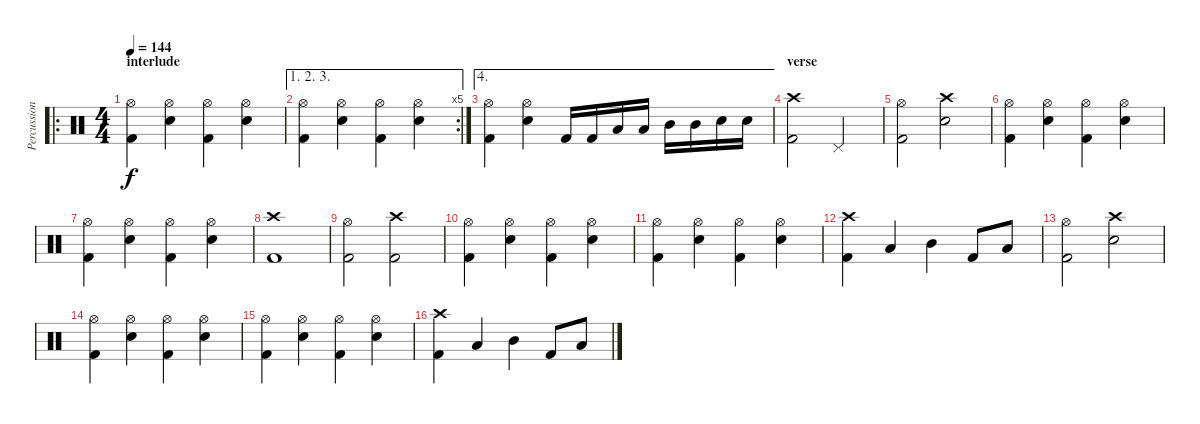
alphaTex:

\track ("Percussion" "Percussion") {instrument percussion}
\staff {score}
\articulation defaults
\ro
\ts (4 4)
\section ("" "interlude")
\tempo 144
\clef neutral
\ks c
("Hi-Hat (open)" "Kick (hit) 2").4{dy f} ("Hi-Hat (open)" "Electric Snare (hit)").4 ("Hi-Hat (open)" "Kick (hit) 2").4 ("Hi-Hat (open)" "Electric Snare (hit)").4 |
\ae (1 2 3)
\rc 5
("Hi-Hat (open)" "Kick (hit) 2").4 ("Hi-Hat (open)" "Electric Snare (hit)").4 ("Hi-Hat (open)" "Kick (hit) 2").4 ("Hi-Hat (open)" "Electric Snare (hit)").4 |
\ae 4
("Hi-Hat (open)" "Kick (hit) 2").4 ("Hi-Hat (open)" "Electric Snare (hit)").4 "Kick (hit) 2".16 "Kick (hit) 2".16 "Low Tom (hit)".16 "Low Tom (hit)".16 "Mid Tom (hit)".16 "Mid Tom (hit)".16 "Electric Snare (hit)".16 "Electric Snare (hit)".16 |
\section ("" "verse")
("Crash high (hit)" "Kick (hit) 2").2 "Pedal Hi-Hat (hit)".2 |
("Hi-Hat (open)" "Kick (hit) 2").2 ("Crash high (hit)" "Electric Snare (hit)").2 |
("Hi-Hat (open)" "Kick (hit) 2").4 ("Hi-Hat (open)" "Electric Snare (hit)").4 ("Hi-Hat (open)" "Kick (hit) 2").4 ("Hi-Hat (open)" "Electric Snare (hit)").4 |
("Hi-Hat (open)" "Kick (hit) 2").4 ("Hi-Hat (open)" "Electric Snare (hit)").4 ("Hi-Hat (open)" "Kick (hit) 2").4 ("Hi-Hat (open)" "Electric Snare (hit)").4 |
("Crash high (hit)" "Kick (hit) 2").1 |
("Hi-Hat (open)" "Kick (hit) 2").2 ("Crash high (hit)" "Kick (hit) 2").2 |
("Hi-Hat (open)" "Kick (hit) 2").4 ("Hi-Hat (open)" "Electric Snare (hit)").4 ("Hi-Hat (open)" "Kick (hit) 2").4 ("Hi-Hat (open)" "Electric Snare (hit)").4 |
("Hi-Hat (open)" "Kick (hit) 2").4 ("Hi-Hat (open)" "Electric Snare (hit)").4 ("Hi-Hat (open)" "Kick (hit) 2").4 ("Hi-Hat (open)" "Electric Snare (hit)").4 |
("Crash high (hit)" "Kick (hit) 2").4 "Low Tom (hit)".4 "Mid Tom (hit)".4 "Kick (hit) 2".8 "Low Floor Tom (hit)".8 |
("Hi-Hat (open)" "Kick (hit) 2").2 ("Crash high (hit)" "Electric Snare (hit)").2 |
("Hi-Hat (open)" "Kick (hit) 2").4 ("Hi-Hat (open)" "Electric Snare (hit)").4 ("Hi-Hat (open)" "Kick (hit) 2").4 ("Hi-Hat (open)" "Electric Snare (hit)").4 |
("Hi-Hat (open)" "Kick (hit) 2").4 ("Hi-Hat (open)" "Electric Snare (hit)").4 ("Hi-Hat (open)" "Kick (hit) 2").4 ("Hi-Hat (open)" "Electric Snare (hit)").4 |
("Crash high (hit)" "Kick (hit) 2").4 "Low Tom (hit)".4 "Mid Tom (hit)".4 "Kick (hit) 2".8 "Low Floor Tom (hit)".8
